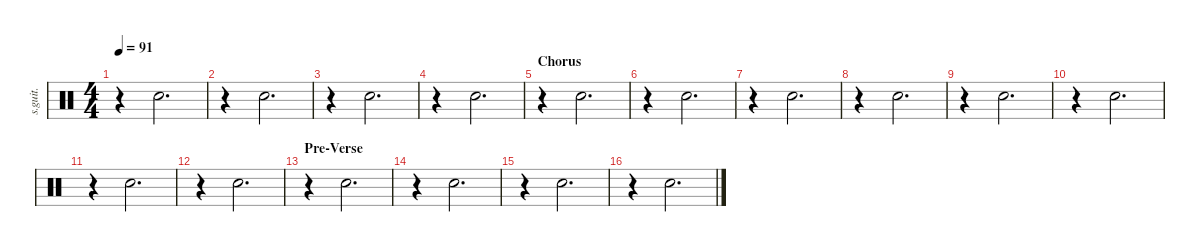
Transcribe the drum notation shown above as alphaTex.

\defaultSystemsLayout 4
\hideDynamics
\bracketExtendMode nobrackets
\track ("Hand Clap" "s.guit.") {instrument percussion}
\staff {score}
\articulation defaults
\ts (4 4)
\tempo 91
\clef neutral
\ks c
r.4{dy fff} "Hand Clap (hit)".2{d} |
r.4 "Hand Clap (hit)".2{d} |
r.4 "Hand Clap (hit)".2{d} |
r.4 "Hand Clap (hit)".2{d} |
\section ("" "Chorus")
r.4 "Hand Clap (hit)".2{d} |
r.4 "Hand Clap (hit)".2{d} |
r.4 "Hand Clap (hit)".2{d} |
r.4 "Hand Clap (hit)".2{d} |
r.4 "Hand Clap (hit)".2{d} |
r.4 "Hand Clap (hit)".2{d} |
r.4 "Hand Clap (hit)".2{d} |
r.4 "Hand Clap (hit)".2{d} |
\section ("" "Pre-Verse")
r.4 "Hand Clap (hit)".2{d} |
r.4 "Hand Clap (hit)".2{d} |
r.4 "Hand Clap (hit)".2{d} |
r.4 "Hand Clap (hit)".2{d}
